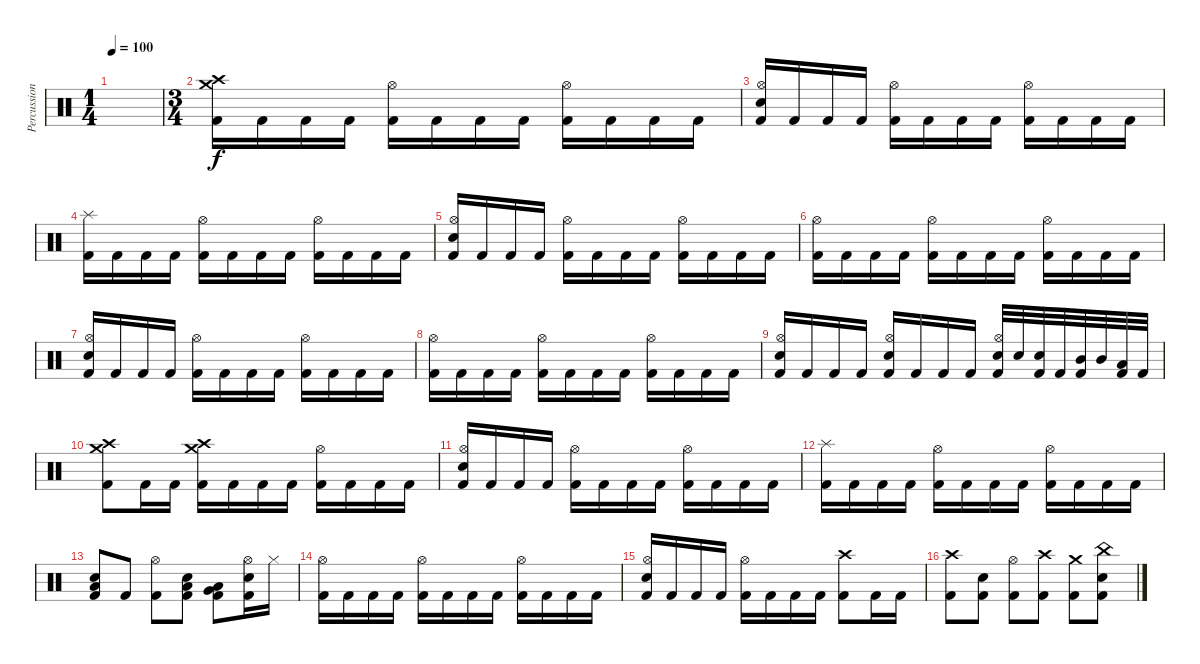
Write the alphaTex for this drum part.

\track ("Percussion" "Percussion") {instrument percussion}
\staff {score}
\articulation defaults
\ts (1 4)
\tempo 100
\clef neutral
\ks c
|
\ts (3 4)
("Crash high (hit)" "Crash medium (hit)" "Kick (hit) 2").16 "Kick (hit) 2".16 "Kick (hit) 2".16 "Kick (hit) 2".16 ("Hi-Hat (open)" "Kick (hit) 2").16 "Kick (hit) 2".16 "Kick (hit) 2".16 "Kick (hit) 2".16 ("Hi-Hat (open)" "Kick (hit) 2").16 "Kick (hit) 2".16 "Kick (hit) 2".16 "Kick (hit) 2".16 |
("Hi-Hat (open)" "Electric Snare (hit)" "Kick (hit) 2").16 "Kick (hit) 2".16 "Kick (hit) 2".16 "Kick (hit) 2".16 ("Hi-Hat (open)" "Kick (hit) 2").16 "Kick (hit) 2".16 "Kick (hit) 2".16 "Kick (hit) 2".16 ("Hi-Hat (open)" "Kick (hit) 2").16 "Kick (hit) 2".16 "Kick (hit) 2".16 "Kick (hit) 2".16 |
("Splash (hit)" "Kick (hit) 2").16 "Kick (hit) 2".16 "Kick (hit) 2".16 "Kick (hit) 2".16 ("Hi-Hat (open)" "Kick (hit) 2").16 "Kick (hit) 2".16 "Kick (hit) 2".16 "Kick (hit) 2".16 ("Hi-Hat (open)" "Kick (hit) 2").16 "Kick (hit) 2".16 "Kick (hit) 2".16 "Kick (hit) 2".16 |
("Hi-Hat (open)" "Electric Snare (hit)" "Kick (hit) 2").16 "Kick (hit) 2".16 "Kick (hit) 2".16 "Kick (hit) 2".16 ("Hi-Hat (open)" "Kick (hit) 2").16 "Kick (hit) 2".16 "Kick (hit) 2".16 "Kick (hit) 2".16 ("Hi-Hat (open)" "Kick (hit) 2").16 "Kick (hit) 2".16 "Kick (hit) 2".16 "Kick (hit) 2".16 |
("Hi-Hat (open)" "Kick (hit) 2").16 "Kick (hit) 2".16 "Kick (hit) 2".16 "Kick (hit) 2".16 ("Hi-Hat (open)" "Kick (hit) 2").16 "Kick (hit) 2".16 "Kick (hit) 2".16 "Kick (hit) 2".16 ("Hi-Hat (open)" "Kick (hit) 2").16 "Kick (hit) 2".16 "Kick (hit) 2".16 "Kick (hit) 2".16 |
("Hi-Hat (open)" "Electric Snare (hit)" "Kick (hit) 2").16 "Kick (hit) 2".16 "Kick (hit) 2".16 "Kick (hit) 2".16 ("Hi-Hat (open)" "Kick (hit) 2").16 "Kick (hit) 2".16 "Kick (hit) 2".16 "Kick (hit) 2".16 ("Hi-Hat (open)" "Kick (hit) 2").16 "Kick (hit) 2".16 "Kick (hit) 2".16 "Kick (hit) 2".16 |
("Hi-Hat (open)" "Kick (hit) 2").16 "Kick (hit) 2".16 "Kick (hit) 2".16 "Kick (hit) 2".16 ("Hi-Hat (open)" "Kick (hit) 2").16 "Kick (hit) 2".16 "Kick (hit) 2".16 "Kick (hit) 2".16 ("Hi-Hat (open)" "Kick (hit) 2").16 "Kick (hit) 2".16 "Kick (hit) 2".16 "Kick (hit) 2".16 |
("Hi-Hat (open)" "Electric Snare (hit)" "Kick (hit) 2").16 "Kick (hit) 2".16 "Kick (hit) 2".16 "Kick (hit) 2".16 ("Hi-Hat (open)" "Electric Snare (hit)" "Kick (hit) 2").16 "Kick (hit) 2".16 "Kick (hit) 2".16 "Kick (hit) 2".16 ("Hi-Hat (open)" "Electric Snare (hit)" "Kick (hit) 2").32 "Electric Snare (hit)".32 ("Electric Snare (hit)" "Kick (hit) 2").32 "Kick (hit) 2".32 ("Mid Tom (hit)" "Kick (hit) 2").32 "Mid Tom (hit)".32 ("Low Tom (hit)" "Kick (hit) 2").32 "Kick (hit) 2".32 |
("Crash high (hit)" "Crash medium (hit)" "Kick (hit) 2").8 "Kick (hit) 2".16 "Kick (hit) 2".16 ("Crash high (hit)" "Crash medium (hit)" "Kick (hit) 2").16 "Kick (hit) 2".16 "Kick (hit) 2".16 "Kick (hit) 2".16 ("Hi-Hat (open)" "Kick (hit) 2").16 "Kick (hit) 2".16 "Kick (hit) 2".16 "Kick (hit) 2".16 |
("Hi-Hat (open)" "Electric Snare (hit)" "Kick (hit) 2").16 "Kick (hit) 2".16 "Kick (hit) 2".16 "Kick (hit) 2".16 ("Hi-Hat (open)" "Kick (hit) 2").16 "Kick (hit) 2".16 "Kick (hit) 2".16 "Kick (hit) 2".16 ("Hi-Hat (open)" "Kick (hit) 2").16 "Kick (hit) 2".16 "Kick (hit) 2".16 "Kick (hit) 2".16 |
("Splash (hit)" "Kick (hit) 2").16 "Kick (hit) 2".16 "Kick (hit) 2".16 "Kick (hit) 2".16 ("Hi-Hat (open)" "Kick (hit) 2").16 "Kick (hit) 2".16 "Kick (hit) 2".16 "Kick (hit) 2".16 ("Hi-Hat (open)" "Kick (hit) 2").16 "Kick (hit) 2".16 "Kick (hit) 2".16 "Kick (hit) 2".16 |
("Low Tom (hit)" "Electric Snare (hit)" "Kick (hit) 2").8 "Kick (hit) 2".8 ("Hi-Hat (open)" "Kick (hit) 2").8 ("Low Tom (hit)" "Electric Snare (hit)" "Kick (hit) 2").8 ("Low Tom (hit)" "Very Low Tom (hit)" "Kick (hit) 2").8 ("Hi-Hat (open)" "Electric Snare (hit)" "Kick (hit) 2").16 "Hi-Hat (closed)".16 |
("Hi-Hat (open)" "Kick (hit) 2").16 "Kick (hit) 2".16 "Kick (hit) 2".16 "Kick (hit) 2".16 ("Hi-Hat (open)" "Kick (hit) 2").16 "Kick (hit) 2".16 "Kick (hit) 2".16 "Kick (hit) 2".16 ("Hi-Hat (open)" "Kick (hit) 2").16 "Kick (hit) 2".16 "Kick (hit) 2".16 "Kick (hit) 2".16 |
("Hi-Hat (open)" "Electric Snare (hit)" "Kick (hit) 2").16 "Kick (hit) 2".16 "Kick (hit) 2".16 "Kick (hit) 2".16 ("Hi-Hat (open)" "Kick (hit) 2").16 "Kick (hit) 2".16 "Kick (hit) 2".16 "Kick (hit) 2".16 ("Crash high (hit)" "Kick (hit) 2").8 "Kick (hit) 2".16 "Kick (hit) 2".16 |
("Crash high (hit)" "Kick (hit) 2").8 ("Electric Snare (hit)" "Kick (hit) 2").8 ("Hi-Hat (open)" "Kick (hit) 2").8 ("Crash high (hit)" "Kick (hit) 2").8 ("Crash medium (hit)" "Kick (hit) 2").8 ("China (hit)" "Electric Snare (hit)" "Kick (hit) 2").8
